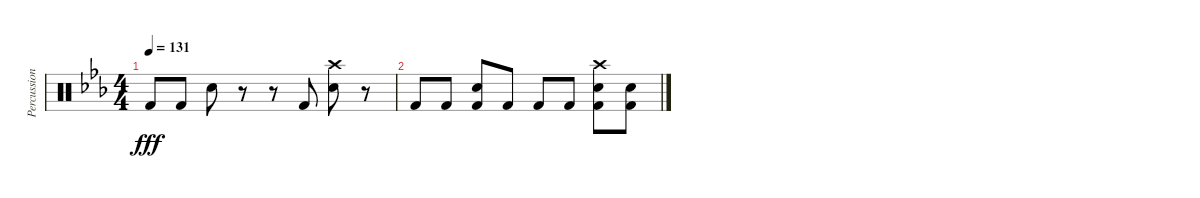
\track ("Percussion" "Percussion") {instrument percussion}
\staff {score}
\articulation defaults
\ts (4 4)
\tempo 131
\clef neutral
\ks cminor "Kick (hit) 2".8{dy fff} "Kick (hit) 2".8 "Electric Snare (hit)".8
r.8 r.8 "Kick (hit) 2".8 ("Electric Snare (hit)" "Crash high (hit)").8 r.8 |
"Kick (hit) 2".8 "Kick (hit) 2".8 ("Electric Snare (hit)" "Kick (hit) 2").8 "Kick (hit) 2".8 "Kick (hit) 2".8 "Kick (hit) 2".8 ("Electric Snare (hit)" "Crash high (hit)" "Kick (hit) 2").8 ("Kick (hit) 2" "Electric Snare (hit)").8
